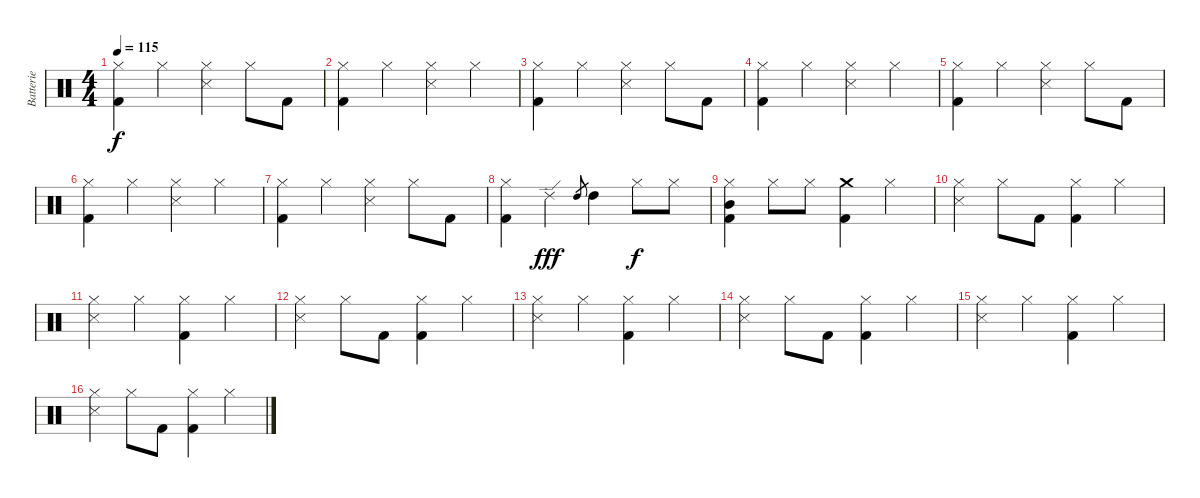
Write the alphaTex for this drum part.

\track ("Batterie" "Batterie") {instrument percussion}
\staff {score}
\articulation defaults
\ts (4 4)
\tempo 115
\clef neutral
\ks c
("Hi-Hat (closed)" "Kick (hit) 2").4{dy f} "Hi-Hat (closed)".4 ("Hi-Hat (closed)" "Snare (side stick) 3").4 "Hi-Hat (closed)".8 "Kick (hit) 2".8 |
("Hi-Hat (closed)" "Kick (hit) 2").4 "Hi-Hat (closed)".4 ("Hi-Hat (closed)" "Snare (side stick) 3").4 "Hi-Hat (closed)".4 |
("Hi-Hat (closed)" "Kick (hit) 2").4 "Hi-Hat (closed)".4 ("Hi-Hat (closed)" "Snare (side stick) 3").4 "Hi-Hat (closed)".8 "Kick (hit) 2".8 |
("Hi-Hat (closed)" "Kick (hit) 2").4 "Hi-Hat (closed)".4 ("Hi-Hat (closed)" "Snare (side stick) 3").4 "Hi-Hat (closed)".4 |
("Hi-Hat (closed)" "Kick (hit) 2").4 "Hi-Hat (closed)".4 ("Hi-Hat (closed)" "Snare (side stick) 3").4 "Hi-Hat (closed)".8 "Kick (hit) 2".8 |
("Hi-Hat (closed)" "Kick (hit) 2").4 "Hi-Hat (closed)".4 ("Hi-Hat (closed)" "Snare (side stick) 3").4 "Hi-Hat (closed)".4 |
("Hi-Hat (closed)" "Kick (hit) 2").4 "Hi-Hat (closed)".4 ("Hi-Hat (closed)" "Snare (side stick) 3").4 "Hi-Hat (closed)".8 "Kick (hit) 2".8 |
("Hi-Hat (closed)" "Kick (hit) 2").4 "Ride (edge) 2".4{dy fff} "High Tom (hit)".8{gr} "High Tom (hit)".4 "Hi-Hat (closed)".8{dy f} "Hi-Hat (closed)".8 |
("Hi-Hat (closed)" "Mid Tom (hit)" "Kick (hit) 2").4 "Hi-Hat (closed)".8 "Hi-Hat (closed)".8 ("Crash medium (hit)" "Kick (hit) 2").4 "Hi-Hat (closed)".4 |
("Hi-Hat (closed)" "Snare (side stick) 3").4 "Hi-Hat (closed)".8 "Kick (hit) 2".8 ("Hi-Hat (closed)" "Kick (hit) 2").4 "Hi-Hat (closed)".4 |
("Hi-Hat (closed)" "Snare (side stick) 3").4 "Hi-Hat (closed)".4 ("Hi-Hat (closed)" "Kick (hit) 2").4 "Hi-Hat (closed)".4 |
("Hi-Hat (closed)" "Snare (side stick) 3").4 "Hi-Hat (closed)".8 "Kick (hit) 2".8 ("Hi-Hat (closed)" "Kick (hit) 2").4 "Hi-Hat (closed)".4 |
("Hi-Hat (closed)" "Snare (side stick) 3").4 "Hi-Hat (closed)".4 ("Hi-Hat (closed)" "Kick (hit) 2").4 "Hi-Hat (closed)".4 |
("Hi-Hat (closed)" "Snare (side stick) 3").4 "Hi-Hat (closed)".8 "Kick (hit) 2".8 ("Hi-Hat (closed)" "Kick (hit) 2").4 "Hi-Hat (closed)".4 |
("Hi-Hat (closed)" "Snare (side stick) 3").4 "Hi-Hat (closed)".4 ("Hi-Hat (closed)" "Kick (hit) 2").4 "Hi-Hat (closed)".4 |
("Hi-Hat (closed)" "Snare (side stick) 3").4 "Hi-Hat (closed)".8 "Kick (hit) 2".8 ("Hi-Hat (closed)" "Kick (hit) 2").4 "Hi-Hat (closed)".4
